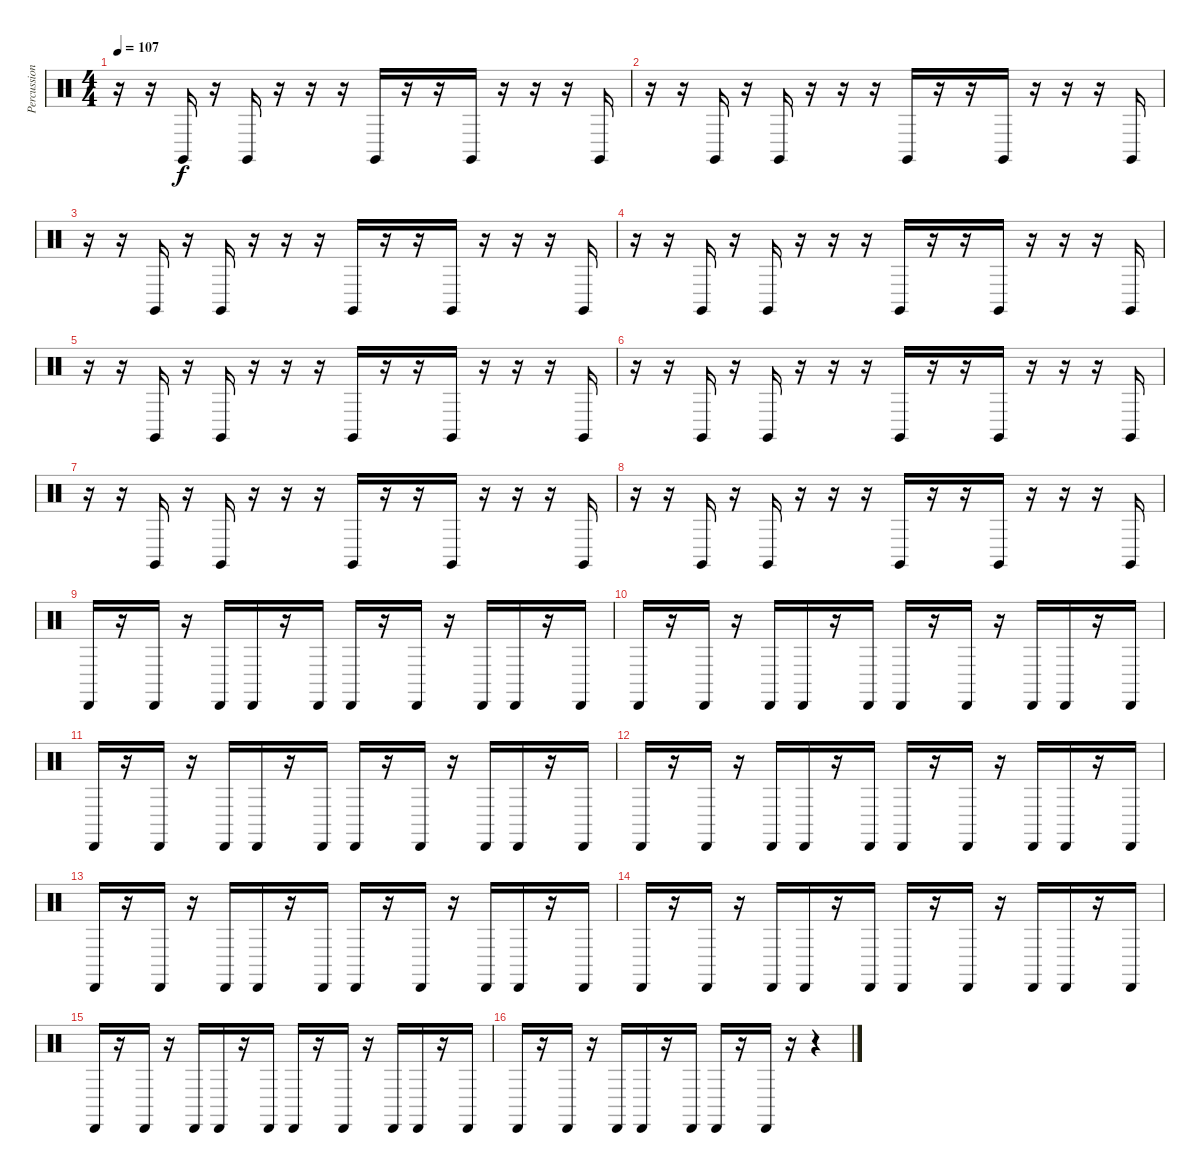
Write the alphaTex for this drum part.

\track ("Percussioni" "Percussion") {instrument percussion}
\staff {score}
\articulation defaults
\ts (4 4)
\tempo 107
\clef neutral
\ks c
r.16{dy f} r.16 "Claves (hit)".16 r.16 "Claves (hit)".16 r.16 r.16 r.16 "Claves (hit)".16 r.16 r.16 "Claves (hit)".16 r.16 r.16 r.16 "Claves (hit)".16 |
r.16 r.16 "Claves (hit)".16 r.16 "Claves (hit)".16 r.16 r.16 r.16 "Claves (hit)".16 r.16 r.16 "Claves (hit)".16 r.16 r.16 r.16 "Claves (hit)".16 |
r.16 r.16 "Claves (hit)".16 r.16 "Claves (hit)".16 r.16 r.16 r.16 "Claves (hit)".16 r.16 r.16 "Claves (hit)".16 r.16 r.16 r.16 "Claves (hit)".16 |
r.16 r.16 "Claves (hit)".16 r.16 "Claves (hit)".16 r.16 r.16 r.16 "Claves (hit)".16 r.16 r.16 "Claves (hit)".16 r.16 r.16 r.16 "Claves (hit)".16 |
r.16 r.16 "Claves (hit)".16 r.16 "Claves (hit)".16 r.16 r.16 r.16 "Claves (hit)".16 r.16 r.16 "Claves (hit)".16 r.16 r.16 r.16 "Claves (hit)".16 |
r.16 r.16 "Claves (hit)".16 r.16 "Claves (hit)".16 r.16 r.16 r.16 "Claves (hit)".16 r.16 r.16 "Claves (hit)".16 r.16 r.16 r.16 "Claves (hit)".16 |
r.16 r.16 "Claves (hit)".16 r.16 "Claves (hit)".16 r.16 r.16 r.16 "Claves (hit)".16 r.16 r.16 "Claves (hit)".16 r.16 r.16 r.16 "Claves (hit)".16 |
r.16 r.16 "Claves (hit)".16 r.16 "Claves (hit)".16 r.16 r.16 r.16 "Claves (hit)".16 r.16 r.16 "Claves (hit)".16 r.16 r.16 r.16 "Claves (hit)".16 |
"Cabasa (hit)".16 r.16 "Cabasa (hit)".16 r.16 "Cabasa (hit)".16 "Cabasa (hit)".16 r.16 "Cabasa (hit)".16 "Cabasa (hit)".16 r.16 "Cabasa (hit)".16 r.16 "Cabasa (hit)".16 "Cabasa (hit)".16 r.16 "Cabasa (hit)".16 |
"Cabasa (hit)".16 r.16 "Cabasa (hit)".16 r.16 "Cabasa (hit)".16 "Cabasa (hit)".16 r.16 "Cabasa (hit)".16 "Cabasa (hit)".16 r.16 "Cabasa (hit)".16 r.16 "Cabasa (hit)".16 "Cabasa (hit)".16 r.16 "Cabasa (hit)".16 |
"Cabasa (hit)".16 r.16 "Cabasa (hit)".16 r.16 "Cabasa (hit)".16 "Cabasa (hit)".16 r.16 "Cabasa (hit)".16 "Cabasa (hit)".16 r.16 "Cabasa (hit)".16 r.16 "Cabasa (hit)".16 "Cabasa (hit)".16 r.16 "Cabasa (hit)".16 |
"Cabasa (hit)".16 r.16 "Cabasa (hit)".16 r.16 "Cabasa (hit)".16 "Cabasa (hit)".16 r.16 "Cabasa (hit)".16 "Cabasa (hit)".16 r.16 "Cabasa (hit)".16 r.16 "Cabasa (hit)".16 "Cabasa (hit)".16 r.16 "Cabasa (hit)".16 |
"Cabasa (hit)".16 r.16 "Cabasa (hit)".16 r.16 "Cabasa (hit)".16 "Cabasa (hit)".16 r.16 "Cabasa (hit)".16 "Cabasa (hit)".16 r.16 "Cabasa (hit)".16 r.16 "Cabasa (hit)".16 "Cabasa (hit)".16 r.16 "Cabasa (hit)".16 |
"Cabasa (hit)".16 r.16 "Cabasa (hit)".16 r.16 "Cabasa (hit)".16 "Cabasa (hit)".16 r.16 "Cabasa (hit)".16 "Cabasa (hit)".16 r.16 "Cabasa (hit)".16 r.16 "Cabasa (hit)".16 "Cabasa (hit)".16 r.16 "Cabasa (hit)".16 |
"Cabasa (hit)".16 r.16 "Cabasa (hit)".16 r.16 "Cabasa (hit)".16 "Cabasa (hit)".16 r.16 "Cabasa (hit)".16 "Cabasa (hit)".16 r.16 "Cabasa (hit)".16 r.16 "Cabasa (hit)".16 "Cabasa (hit)".16 r.16 "Cabasa (hit)".16 |
"Cabasa (hit)".16 r.16 "Cabasa (hit)".16 r.16 "Cabasa (hit)".16 "Cabasa (hit)".16 r.16 "Cabasa (hit)".16 "Cabasa (hit)".16 r.16 "Cabasa (hit)".16 r.16 r.4
